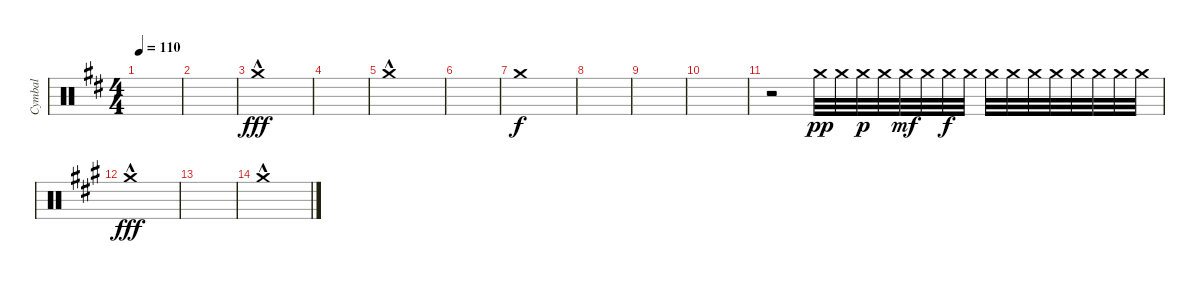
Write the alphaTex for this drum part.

\track ("Cymbal" "Cymbal") {instrument percussion}
\staff {score}
\articulation defaults
\ts (4 4)
\tempo 110
\clef neutral
\ks d
|
|
"Crash medium (hit)"{hac}.1{dy fff} |
|
"Crash medium (hit)"{hac}.1 |
|
"Crash medium (hit)".1{dy f} |
|
|
|
r.2 "Crash medium (hit)".32{dy pp} "Crash medium (hit)".32 "Crash medium (hit)".32{dy p} "Crash medium (hit)".32 "Crash medium (hit)".32{dy mf} "Crash medium (hit)".32 "Crash medium (hit)".32{dy f} "Crash medium (hit)".32 "Crash medium (hit)".32 "Crash medium (hit)".32 "Crash medium (hit)".32 "Crash medium (hit)".32 "Crash medium (hit)".32 "Crash medium (hit)".32 "Crash medium (hit)".32 "Crash medium (hit)".32 |
\ks f#minor "Crash medium (hit)"{hac}.1{dy fff}
|
|
"Crash medium (hit)"{hac}.1
